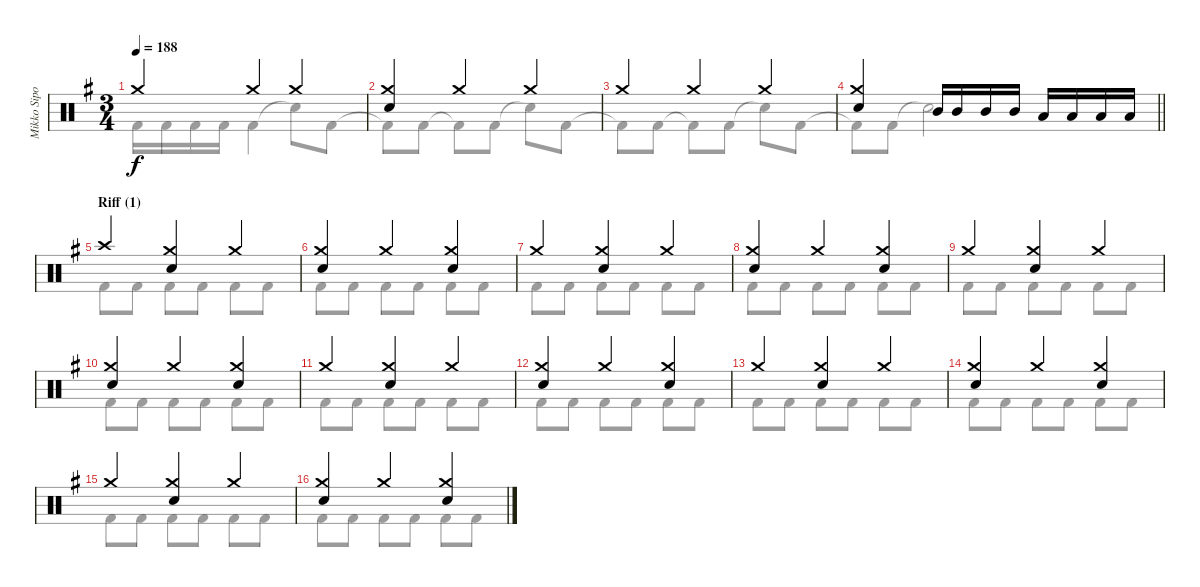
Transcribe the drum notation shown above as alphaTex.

\track ("Mikko Sipola (drums)" "Mikko Sipo") {instrument percussion}
\staff {score}
\articulation defaults
\voice
\ts (3 4)
\tempo 188
\clef neutral
\ks eminor "Crash medium (hit)".4{dy f} "Crash medium (hit)".4 "Crash medium (hit)".4
|
("Crash medium (hit)" "Electric Snare (hit)").4 "Crash medium (hit)".4 "Crash medium (hit)".4 |
"Crash medium (hit)".4 "Crash medium (hit)".4 "Crash medium (hit)".4 |
\barLineRight lightlight
("Crash medium (hit)" "Electric Snare (hit)").4 "Mid Tom (hit)".16 "Mid Tom (hit)".16 "Mid Tom (hit)".16 "Mid Tom (hit)".16 "Low Tom (hit)".16 "Low Tom (hit)".16 "Low Tom (hit)".16 "Low Tom (hit)".16 |
\section ("" "Riff (1)")
"Crash high (hit)".4 ("Crash medium (hit)" "Electric Snare (hit)").4 "Crash medium (hit)".4 |
("Crash medium (hit)" "Electric Snare (hit)").4 "Crash medium (hit)".4 ("Crash medium (hit)" "Electric Snare (hit)").4 |
"Crash medium (hit)".4 ("Crash medium (hit)" "Electric Snare (hit)").4 "Crash medium (hit)".4 |
("Crash medium (hit)" "Electric Snare (hit)").4 "Crash medium (hit)".4 ("Crash medium (hit)" "Electric Snare (hit)").4 |
"Crash medium (hit)".4 ("Crash medium (hit)" "Electric Snare (hit)").4 "Crash medium (hit)".4 |
("Crash medium (hit)" "Electric Snare (hit)").4 "Crash medium (hit)".4 ("Crash medium (hit)" "Electric Snare (hit)").4 |
"Crash medium (hit)".4 ("Crash medium (hit)" "Electric Snare (hit)").4 "Crash medium (hit)".4 |
("Crash medium (hit)" "Electric Snare (hit)").4 "Crash medium (hit)".4 ("Crash medium (hit)" "Electric Snare (hit)").4 |
"Crash medium (hit)".4 ("Crash medium (hit)" "Electric Snare (hit)").4 "Crash medium (hit)".4 |
("Crash medium (hit)" "Electric Snare (hit)").4 "Crash medium (hit)".4 ("Crash medium (hit)" "Electric Snare (hit)").4 |
"Crash medium (hit)".4 ("Crash medium (hit)" "Electric Snare (hit)").4 "Crash medium (hit)".4 |
("Crash medium (hit)" "Electric Snare (hit)").4 "Crash medium (hit)".4 ("Crash medium (hit)" "Electric Snare (hit)").4
\voice
\clef neutral
\ottava regular
\simile none
\ks eminor "Kick (hit) 2".16{dy f} "Kick (hit) 2".16 "Kick (hit) 2".16 "Kick (hit) 2".16 "Kick (hit) 2".4 "Snare (hit)"{t}.8 "Kick (hit) 2".8
|
"Kick (hit) 2"{t}.8 "Kick (hit) 2".8 "Kick (hit) 2"{t}.8 "Kick (hit) 2".8 "Snare (hit)"{t}.8 "Kick (hit) 2".8 |
"Kick (hit) 2"{t}.8 "Kick (hit) 2".8 "Kick (hit) 2"{t}.8 "Kick (hit) 2".8 "Snare (hit)"{t}.8 "Kick (hit) 2".8 |
\barLineRight lightlight "Kick (hit) 2"{t}.8 "Kick (hit) 2".8 "Snare (hit)"{t}.2
|
"Kick (hit) 2".8 "Kick (hit) 2".8 "Kick (hit) 2".8 "Kick (hit) 2".8 "Kick (hit) 2".8 "Kick (hit) 2".8 |
"Kick (hit) 2".8 "Kick (hit) 2".8 "Kick (hit) 2".8 "Kick (hit) 2".8 "Kick (hit) 2".8 "Kick (hit) 2".8 |
"Kick (hit) 2".8 "Kick (hit) 2".8 "Kick (hit) 2".8 "Kick (hit) 2".8 "Kick (hit) 2".8 "Kick (hit) 2".8 |
"Kick (hit) 2".8 "Kick (hit) 2".8 "Kick (hit) 2".8 "Kick (hit) 2".8 "Kick (hit) 2".8 "Kick (hit) 2".8 |
"Kick (hit) 2".8 "Kick (hit) 2".8 "Kick (hit) 2".8 "Kick (hit) 2".8 "Kick (hit) 2".8 "Kick (hit) 2".8 |
"Kick (hit) 2".8 "Kick (hit) 2".8 "Kick (hit) 2".8 "Kick (hit) 2".8 "Kick (hit) 2".8 "Kick (hit) 2".8 |
"Kick (hit) 2".8 "Kick (hit) 2".8 "Kick (hit) 2".8 "Kick (hit) 2".8 "Kick (hit) 2".8 "Kick (hit) 2".8 |
"Kick (hit) 2".8 "Kick (hit) 2".8 "Kick (hit) 2".8 "Kick (hit) 2".8 "Kick (hit) 2".8 "Kick (hit) 2".8 |
"Kick (hit) 2".8 "Kick (hit) 2".8 "Kick (hit) 2".8 "Kick (hit) 2".8 "Kick (hit) 2".8 "Kick (hit) 2".8 |
"Kick (hit) 2".8 "Kick (hit) 2".8 "Kick (hit) 2".8 "Kick (hit) 2".8 "Kick (hit) 2".8 "Kick (hit) 2".8 |
"Kick (hit) 2".8 "Kick (hit) 2".8 "Kick (hit) 2".8 "Kick (hit) 2".8 "Kick (hit) 2".8 "Kick (hit) 2".8 |
"Kick (hit) 2".8 "Kick (hit) 2".8 "Kick (hit) 2".8 "Kick (hit) 2".8 "Kick (hit) 2".8 "Kick (hit) 2".8
